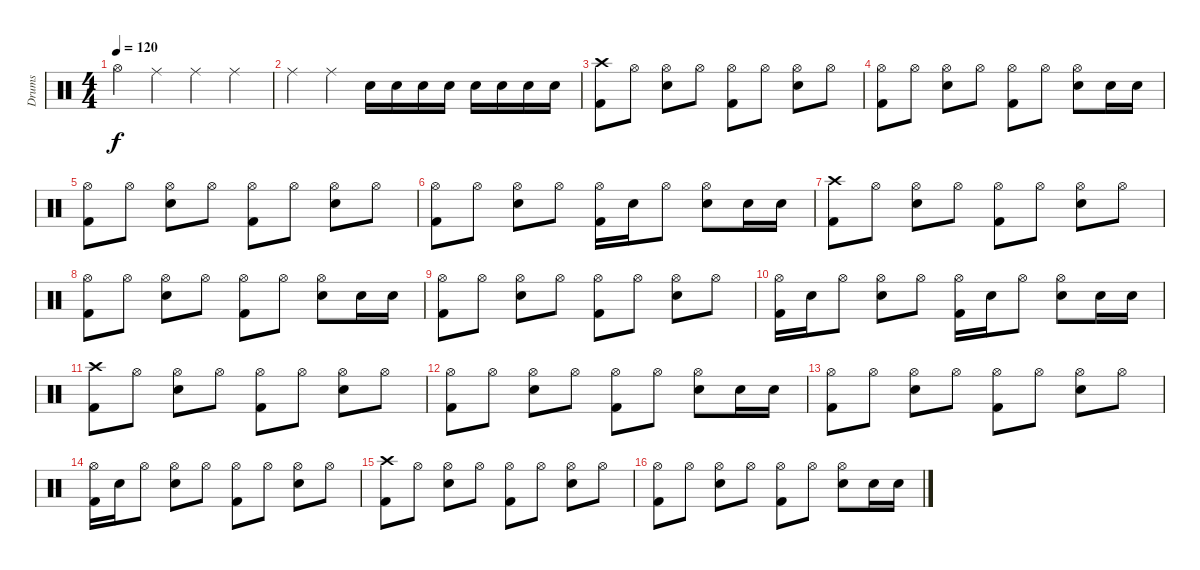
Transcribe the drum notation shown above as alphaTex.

\track ("Drums" "Drums") {instrument percussion}
\staff {score}
\articulation defaults
\ts (4 4)
\tempo 120
\clef neutral
\ks c "Hi-Hat (open)".4{dy f} "Ride (middle)".4 "Ride (middle)".4 "Ride (middle)".4
|
"Ride (middle)".4 "Ride (middle)".4 "Snare (hit) 2".16 "Snare (hit) 2".16 "Snare (hit) 2".16 "Snare (hit) 2".16 "Snare (hit) 2".16 "Snare (hit) 2".16 "Snare (hit) 2".16 "Snare (hit) 2".16 |
("Crash high (hit)" "Kick (hit) 2").8 "Hi-Hat (open)".8 ("Hi-Hat (open)" "Snare (hit) 2").8 "Hi-Hat (open)".8 ("Hi-Hat (open)" "Kick (hit) 2").8 "Hi-Hat (open)".8 ("Hi-Hat (open)" "Snare (hit) 2").8 "Hi-Hat (open)".8 |
("Hi-Hat (open)" "Kick (hit) 2").8 "Hi-Hat (open)".8 ("Hi-Hat (open)" "Snare (hit) 2").8 "Hi-Hat (open)".8 ("Hi-Hat (open)" "Kick (hit) 2").8 "Hi-Hat (open)".8 ("Hi-Hat (open)" "Snare (hit) 2").8 "Snare (hit) 2".16 "Snare (hit) 2".16 |
("Hi-Hat (open)" "Kick (hit) 2").8 "Hi-Hat (open)".8 ("Hi-Hat (open)" "Snare (hit) 2").8 "Hi-Hat (open)".8 ("Hi-Hat (open)" "Kick (hit) 2").8 "Hi-Hat (open)".8 ("Hi-Hat (open)" "Snare (hit) 2").8 "Hi-Hat (open)".8 |
("Hi-Hat (open)" "Kick (hit) 2").8 "Hi-Hat (open)".8 ("Hi-Hat (open)" "Snare (hit) 2").8 "Hi-Hat (open)".8 ("Hi-Hat (open)" "Kick (hit) 2").16 "Snare (hit) 2".16 "Hi-Hat (open)".8 ("Hi-Hat (open)" "Snare (hit) 2").8 "Snare (hit) 2".16 "Snare (hit) 2".16 |
("Crash high (hit)" "Kick (hit) 2").8 "Hi-Hat (open)".8 ("Hi-Hat (open)" "Snare (hit) 2").8 "Hi-Hat (open)".8 ("Hi-Hat (open)" "Kick (hit) 2").8 "Hi-Hat (open)".8 ("Hi-Hat (open)" "Snare (hit) 2").8 "Hi-Hat (open)".8 |
("Hi-Hat (open)" "Kick (hit) 2").8 "Hi-Hat (open)".8 ("Hi-Hat (open)" "Snare (hit) 2").8 "Hi-Hat (open)".8 ("Hi-Hat (open)" "Kick (hit) 2").8 "Hi-Hat (open)".8 ("Hi-Hat (open)" "Snare (hit) 2").8 "Snare (hit) 2".16 "Snare (hit) 2".16 |
("Hi-Hat (open)" "Kick (hit) 2").8 "Hi-Hat (open)".8 ("Hi-Hat (open)" "Snare (hit) 2").8 "Hi-Hat (open)".8 ("Hi-Hat (open)" "Kick (hit) 2").8 "Hi-Hat (open)".8 ("Hi-Hat (open)" "Snare (hit) 2").8 "Hi-Hat (open)".8 |
("Hi-Hat (open)" "Kick (hit) 2").16 "Snare (hit) 2".16 "Hi-Hat (open)".8 ("Hi-Hat (open)" "Snare (hit) 2").8 "Hi-Hat (open)".8 ("Hi-Hat (open)" "Kick (hit) 2").16 "Snare (hit) 2".16 "Hi-Hat (open)".8 ("Hi-Hat (open)" "Snare (hit) 2").8 "Snare (hit) 2".16 "Snare (hit) 2".16 |
("Crash high (hit)" "Kick (hit) 2").8 "Hi-Hat (open)".8 ("Hi-Hat (open)" "Snare (hit) 2").8 "Hi-Hat (open)".8 ("Hi-Hat (open)" "Kick (hit) 2").8 "Hi-Hat (open)".8 ("Hi-Hat (open)" "Snare (hit) 2").8 "Hi-Hat (open)".8 |
("Hi-Hat (open)" "Kick (hit) 2").8 "Hi-Hat (open)".8 ("Hi-Hat (open)" "Snare (hit) 2").8 "Hi-Hat (open)".8 ("Hi-Hat (open)" "Kick (hit) 2").8 "Hi-Hat (open)".8 ("Hi-Hat (open)" "Snare (hit) 2").8 "Snare (hit) 2".16 "Snare (hit) 2".16 |
("Hi-Hat (open)" "Kick (hit) 2").8 "Hi-Hat (open)".8 ("Hi-Hat (open)" "Snare (hit) 2").8 "Hi-Hat (open)".8 ("Hi-Hat (open)" "Kick (hit) 2").8 "Hi-Hat (open)".8 ("Hi-Hat (open)" "Snare (hit) 2").8 "Hi-Hat (open)".8 |
("Hi-Hat (open)" "Kick (hit) 2").16 "Snare (hit) 2".16 "Hi-Hat (open)".8 ("Hi-Hat (open)" "Snare (hit) 2").8 "Hi-Hat (open)".8 ("Hi-Hat (open)" "Kick (hit) 2").8 "Hi-Hat (open)".8 ("Hi-Hat (open)" "Snare (hit) 2").8 "Hi-Hat (open)".8 |
("Crash high (hit)" "Kick (hit) 2").8 "Hi-Hat (open)".8 ("Hi-Hat (open)" "Snare (hit) 2").8 "Hi-Hat (open)".8 ("Hi-Hat (open)" "Kick (hit) 2").8 "Hi-Hat (open)".8 ("Hi-Hat (open)" "Snare (hit) 2").8 "Hi-Hat (open)".8 |
("Hi-Hat (open)" "Kick (hit) 2").8 "Hi-Hat (open)".8 ("Hi-Hat (open)" "Snare (hit) 2").8 "Hi-Hat (open)".8 ("Hi-Hat (open)" "Kick (hit) 2").8 "Hi-Hat (open)".8 ("Hi-Hat (open)" "Snare (hit) 2").8 "Snare (hit) 2".16 "Snare (hit) 2".16
